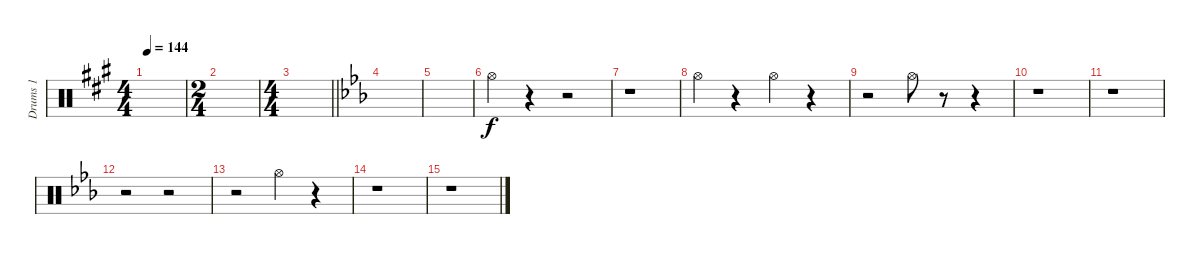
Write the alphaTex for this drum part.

\track ("Drums 1" "Drums 1") {instrument percussion}
\staff {score}
\articulation defaults
\ts (4 4)
\tempo 144
\clef neutral
\ks a
|
\ts (2 4)
|
\ts (4 4)
\barLineRight lightlight
|
\ks eb
|
|
"Hi-Hat (open)".4 r.4 r.2 |
r.1 |
"Hi-Hat (open)".4 r.4 "Hi-Hat (open)".4 r.4 |
r.2 "Hi-Hat (open)".8 r.8 r.4 |
r.1 |
r.1 |
r.2 r.2 |
r.2 "Hi-Hat (open)".4 r.4 |
r.1 |
r.1
